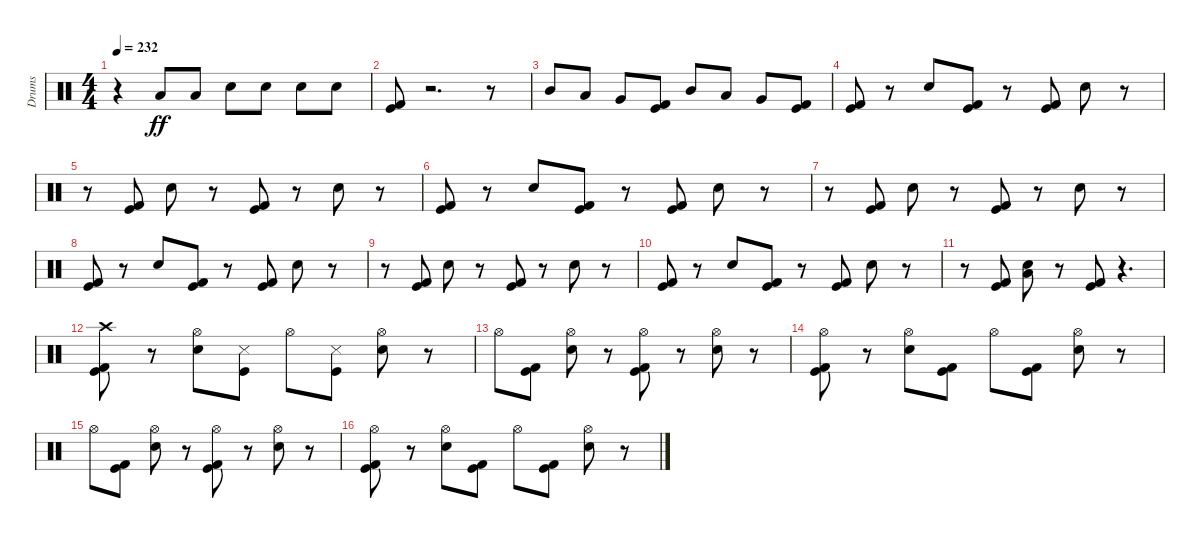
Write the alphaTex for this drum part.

\track ("Drums" "Drums") {instrument percussion}
\staff {score}
\articulation defaults
\ts (4 4)
\tempo 232
\clef neutral
\ks c
r.4{dy ff} "Low Floor Tom (hit)".8 "Low Floor Tom (hit)".8 "Snare (hit) 2".8 "Snare (hit) 2".8 "Snare (hit) 2".8 "Snare (hit) 2".8 |
("Kick (hit)" "Kick (hit) 2").8 r.2{d} r.8 |
"Mid Tom (hit)".8 "Low Tom (hit)".8 "Very Low Tom (hit)".8 ("Kick (hit)" "Kick (hit) 2").8 "Mid Tom (hit)".8 "Low Tom (hit)".8 "Very Low Tom (hit)".8 ("Kick (hit)" "Kick (hit) 2").8 |
("Kick (hit)" "Kick (hit) 2").8 r.8 "Snare (hit) 2".8 ("Kick (hit)" "Kick (hit) 2").8 r.8 ("Kick (hit)" "Kick (hit) 2").8 "Snare (hit) 2".8 r.8 |
r.8 ("Kick (hit)" "Kick (hit) 2").8 "Snare (hit) 2".8 r.8 ("Kick (hit)" "Kick (hit) 2").8 r.8 "Snare (hit) 2".8 r.8 |
("Kick (hit)" "Kick (hit) 2").8 r.8 "Snare (hit) 2".8 ("Kick (hit)" "Kick (hit) 2").8 r.8 ("Kick (hit)" "Kick (hit) 2").8 "Snare (hit) 2".8 r.8 |
r.8 ("Kick (hit)" "Kick (hit) 2").8 "Snare (hit) 2".8 r.8 ("Kick (hit)" "Kick (hit) 2").8 r.8 "Snare (hit) 2".8 r.8 |
("Kick (hit)" "Kick (hit) 2").8 r.8 "Snare (hit) 2".8 ("Kick (hit)" "Kick (hit) 2").8 r.8 ("Kick (hit)" "Kick (hit) 2").8 "Snare (hit) 2".8 r.8 |
r.8 ("Kick (hit)" "Kick (hit) 2").8 "Snare (hit) 2".8 r.8 ("Kick (hit)" "Kick (hit) 2").8 r.8 "Snare (hit) 2".8 r.8 |
("Kick (hit)" "Kick (hit) 2").8 r.8 "Snare (hit) 2".8 ("Kick (hit)" "Kick (hit) 2").8 r.8 ("Kick (hit)" "Kick (hit) 2").8 "Snare (hit) 2".8 r.8 |
r.8 ("Kick (hit)" "Kick (hit) 2").8 ("Snare (hit) 2" "Low Floor Tom (hit)").8 r.8 ("Kick (hit)" "Kick (hit) 2").8 r.4{d} |
("Kick (hit)" "Kick (hit) 2" "Crash high (hit)").8 r.8 ("Snare (hit) 2" "Hi-Hat (open)").8 ("Kick (hit)" "Snare (side stick) 3").8 "Hi-Hat (open)".8 ("Kick (hit)" "Snare (side stick) 3").8 ("Snare (hit) 2" "Hi-Hat (open)").8 r.8 |
"Hi-Hat (open)".8 ("Kick (hit)" "Kick (hit) 2").8 ("Snare (hit) 2" "Hi-Hat (open)").8 r.8 ("Kick (hit)" "Kick (hit) 2" "Hi-Hat (open)").8 r.8 ("Snare (hit) 2" "Hi-Hat (open)").8 r.8 |
("Kick (hit)" "Kick (hit) 2" "Hi-Hat (open)").8 r.8 ("Snare (hit) 2" "Hi-Hat (open)").8 ("Kick (hit)" "Kick (hit) 2").8 "Hi-Hat (open)".8 ("Kick (hit)" "Kick (hit) 2").8 ("Snare (hit) 2" "Hi-Hat (open)").8 r.8 |
"Hi-Hat (open)".8 ("Kick (hit)" "Kick (hit) 2").8 ("Snare (hit) 2" "Hi-Hat (open)").8 r.8 ("Kick (hit)" "Kick (hit) 2" "Hi-Hat (open)").8 r.8 ("Snare (hit) 2" "Hi-Hat (open)").8 r.8 |
("Kick (hit)" "Kick (hit) 2" "Hi-Hat (open)").8 r.8 ("Snare (hit) 2" "Hi-Hat (open)").8 ("Kick (hit)" "Kick (hit) 2").8 "Hi-Hat (open)".8 ("Kick (hit)" "Kick (hit) 2").8 ("Snare (hit) 2" "Hi-Hat (open)").8 r.8
